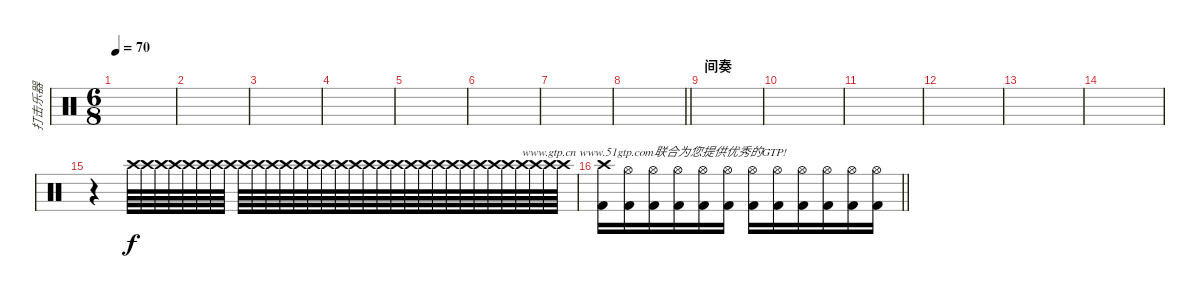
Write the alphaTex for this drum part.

\track ("打击乐器" "打击乐器") {instrument percussion}
\staff {score}
\articulation defaults
\ts (6 8)
\tempo 70
\clef neutral
\ks c
|
|
|
|
|
|
|
\barLineRight lightlight
|
\section ("" "间奏")
|
|
|
|
|
|
r.4 "Crash high (hit)".64{volume 2} "Crash high (hit)".64{volume 13} "Crash high (hit)".64 "Crash high (hit)".64 "Crash high (hit)".64 "Crash high (hit)".64 "Crash high (hit)".64 "Crash high (hit)".64 "Crash high (hit)".64 "Crash high (hit)".64 "Crash high (hit)".64 "Crash high (hit)".64 "Crash high (hit)".64 "Crash high (hit)".64 "Crash high (hit)".64 "Crash high (hit)".64 "Crash high (hit)".64 "Crash high (hit)".64 "Crash high (hit)".64 "Crash high (hit)".64 "Crash high (hit)".64 "Crash high (hit)".64 "Crash high (hit)".64 "Crash high (hit)".64 "Crash high (hit)".64 "Crash high (hit)".64 "Crash high (hit)".64 "Crash high (hit)".64 "Crash high (hit)".64{txt "www.gtp.cn www.51gtp.com联合为您提供优秀的GTP!"} "Crash high (hit)".64 "Crash high (hit)".64 "Crash high (hit)".64 |
\barLineRight lightlight
("Crash high (hit)" "Kick (hit) 2").16{volume 3} ("Hi-Hat (open)" "Kick (hit) 2").16{volume 13} ("Hi-Hat (open)" "Kick (hit) 2").16 ("Hi-Hat (open)" "Kick (hit) 2").16 ("Hi-Hat (open)" "Kick (hit) 2").16 ("Hi-Hat (open)" "Kick (hit) 2").16 ("Hi-Hat (open)" "Kick (hit) 2").16 ("Hi-Hat (open)" "Kick (hit) 2").16 ("Hi-Hat (open)" "Kick (hit) 2").16 ("Hi-Hat (open)" "Kick (hit) 2").16 ("Hi-Hat (open)" "Kick (hit) 2").16 ("Hi-Hat (open)" "Kick (hit) 2").16
